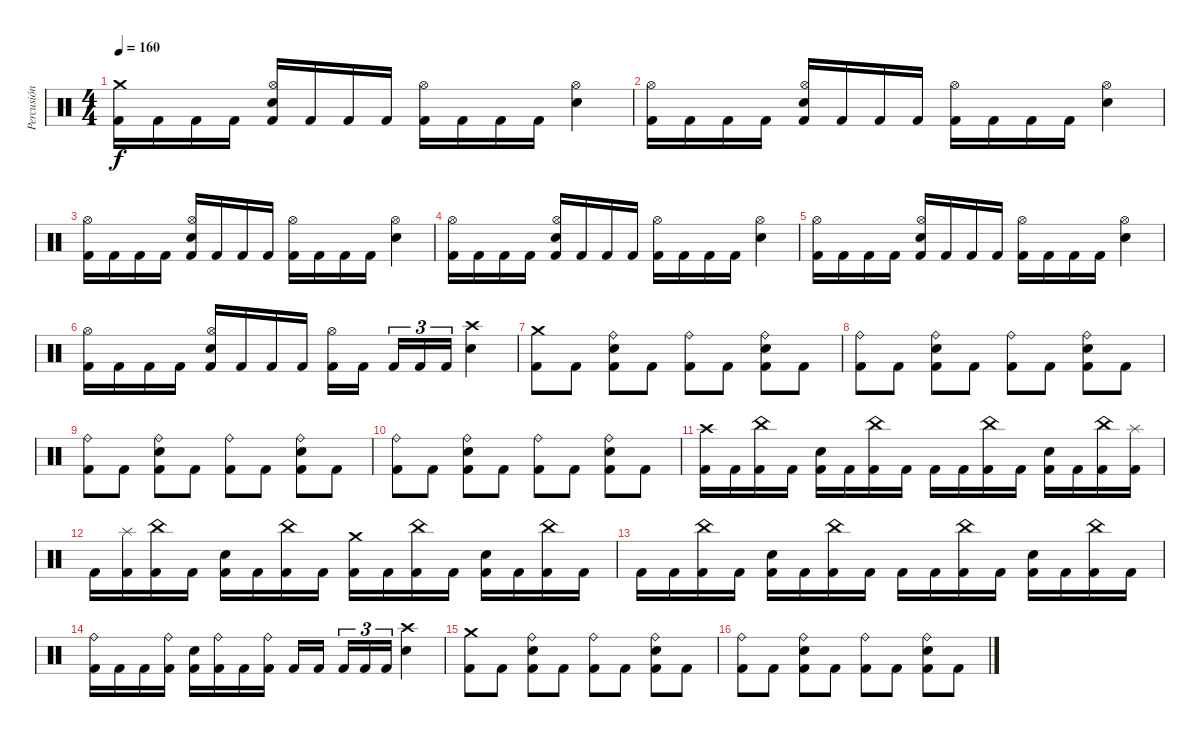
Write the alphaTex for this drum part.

\track ("Percusión" "Percusión") {instrument percussion}
\staff {score}
\articulation defaults
\ts (4 4)
\tempo 160
\clef neutral
\ks c
("Crash medium (hit)" "Kick (hit) 2").16{dy f} "Kick (hit) 2".16 "Kick (hit) 2".16 "Kick (hit) 2".16 ("Hi-Hat (open)" "Electric Snare (hit)" "Kick (hit) 2").16 "Kick (hit) 2".16 "Kick (hit) 2".16 "Kick (hit) 2".16 ("Hi-Hat (open)" "Kick (hit) 2").16 "Kick (hit) 2".16 "Kick (hit) 2".16 "Kick (hit) 2".16 ("Hi-Hat (open)" "Electric Snare (hit)").4 |
("Hi-Hat (open)" "Kick (hit) 2").16 "Kick (hit) 2".16 "Kick (hit) 2".16 "Kick (hit) 2".16 ("Hi-Hat (open)" "Electric Snare (hit)" "Kick (hit) 2").16 "Kick (hit) 2".16 "Kick (hit) 2".16 "Kick (hit) 2".16 ("Hi-Hat (open)" "Kick (hit) 2").16 "Kick (hit) 2".16 "Kick (hit) 2".16 "Kick (hit) 2".16 ("Hi-Hat (open)" "Electric Snare (hit)").4 |
("Hi-Hat (open)" "Kick (hit) 2").16 "Kick (hit) 2".16 "Kick (hit) 2".16 "Kick (hit) 2".16 ("Hi-Hat (open)" "Electric Snare (hit)" "Kick (hit) 2").16 "Kick (hit) 2".16 "Kick (hit) 2".16 "Kick (hit) 2".16 ("Hi-Hat (open)" "Kick (hit) 2").16 "Kick (hit) 2".16 "Kick (hit) 2".16 "Kick (hit) 2".16 ("Hi-Hat (open)" "Electric Snare (hit)").4 |
("Hi-Hat (open)" "Kick (hit) 2").16 "Kick (hit) 2".16 "Kick (hit) 2".16 "Kick (hit) 2".16 ("Hi-Hat (open)" "Electric Snare (hit)" "Kick (hit) 2").16 "Kick (hit) 2".16 "Kick (hit) 2".16 "Kick (hit) 2".16 ("Hi-Hat (open)" "Kick (hit) 2").16 "Kick (hit) 2".16 "Kick (hit) 2".16 "Kick (hit) 2".16 ("Hi-Hat (open)" "Electric Snare (hit)").4 |
("Hi-Hat (open)" "Kick (hit) 2").16 "Kick (hit) 2".16 "Kick (hit) 2".16 "Kick (hit) 2".16 ("Hi-Hat (open)" "Electric Snare (hit)" "Kick (hit) 2").16 "Kick (hit) 2".16 "Kick (hit) 2".16 "Kick (hit) 2".16 ("Hi-Hat (open)" "Kick (hit) 2").16 "Kick (hit) 2".16 "Kick (hit) 2".16 "Kick (hit) 2".16 ("Hi-Hat (open)" "Electric Snare (hit)").4 |
("Hi-Hat (open)" "Kick (hit) 2").16 "Kick (hit) 2".16 "Kick (hit) 2".16 "Kick (hit) 2".16 ("Hi-Hat (open)" "Electric Snare (hit)" "Kick (hit) 2").16 "Kick (hit) 2".16 "Kick (hit) 2".16 "Kick (hit) 2".16 ("Hi-Hat (open)" "Kick (hit) 2").16 "Kick (hit) 2".16{beam splitsecondary} "Kick (hit) 2".16{tu (3 2)} "Kick (hit) 2".16{tu (3 2)} "Kick (hit) 2".16{tu (3 2)} ("Crash high (hit)" "Electric Snare (hit)").4 |
("Crash medium (hit)" "Kick (hit) 2").8 "Kick (hit) 2".8 ("Ride (bell)" "Electric Snare (hit)" "Kick (hit) 2").8 "Kick (hit) 2".8 ("Ride (bell)" "Kick (hit) 2").8 "Kick (hit) 2".8 ("Ride (bell)" "Electric Snare (hit)" "Kick (hit) 2").8 "Kick (hit) 2".8 |
("Ride (bell)" "Kick (hit) 2").8 "Kick (hit) 2".8 ("Ride (bell)" "Electric Snare (hit)" "Kick (hit) 2").8 "Kick (hit) 2".8 ("Ride (bell)" "Kick (hit) 2").8 "Kick (hit) 2".8 ("Ride (bell)" "Electric Snare (hit)" "Kick (hit) 2").8 "Kick (hit) 2".8 |
("Ride (bell)" "Kick (hit) 2").8 "Kick (hit) 2".8 ("Ride (bell)" "Electric Snare (hit)" "Kick (hit) 2").8 "Kick (hit) 2".8 ("Ride (bell)" "Kick (hit) 2").8 "Kick (hit) 2".8 ("Ride (bell)" "Electric Snare (hit)" "Kick (hit) 2").8 "Kick (hit) 2".8 |
("Ride (bell)" "Kick (hit) 2").8 "Kick (hit) 2".8 ("Ride (bell)" "Electric Snare (hit)" "Kick (hit) 2").8 "Kick (hit) 2".8 ("Ride (bell)" "Kick (hit) 2").8 "Kick (hit) 2".8 ("Ride (bell)" "Electric Snare (hit)" "Kick (hit) 2").8 "Kick (hit) 2".8 |
("Crash high (hit)" "Kick (hit) 2").16 "Kick (hit) 2".16 ("China (hit)" "Kick (hit) 2").16 "Kick (hit) 2".16 ("Electric Snare (hit)" "Kick (hit) 2").16 "Kick (hit) 2".16 ("China (hit)" "Kick (hit) 2").16 "Kick (hit) 2".16 "Kick (hit) 2".16 "Kick (hit) 2".16 ("China (hit)" "Kick (hit) 2").16 "Kick (hit) 2".16 ("Electric Snare (hit)" "Kick (hit) 2").16 "Kick (hit) 2".16 ("China (hit)" "Kick (hit) 2").16 ("Splash (hit)" "Kick (hit) 2").16 |
"Kick (hit) 2".16 ("Splash (hit)" "Kick (hit) 2").16 ("China (hit)" "Kick (hit) 2").16 "Kick (hit) 2".16 ("Electric Snare (hit)" "Kick (hit) 2").16 "Kick (hit) 2".16 ("China (hit)" "Kick (hit) 2").16 "Kick (hit) 2".16 ("Crash medium (hit)" "Kick (hit) 2").16 "Kick (hit) 2".16 ("China (hit)" "Kick (hit) 2").16 "Kick (hit) 2".16 ("Electric Snare (hit)" "Kick (hit) 2").16 "Kick (hit) 2".16 ("China (hit)" "Kick (hit) 2").16 "Kick (hit) 2".16 |
"Kick (hit) 2".16 "Kick (hit) 2".16 ("China (hit)" "Kick (hit) 2").16 "Kick (hit) 2".16 ("Electric Snare (hit)" "Kick (hit) 2").16 "Kick (hit) 2".16 ("China (hit)" "Kick (hit) 2").16 "Kick (hit) 2".16 "Kick (hit) 2".16 "Kick (hit) 2".16 ("China (hit)" "Kick (hit) 2").16 "Kick (hit) 2".16 ("Electric Snare (hit)" "Kick (hit) 2").16 "Kick (hit) 2".16 ("China (hit)" "Kick (hit) 2").16 "Kick (hit) 2".16 |
("Ride (bell)" "Kick (hit) 2").16 "Kick (hit) 2".16 "Kick (hit) 2".16 ("Ride (bell)" "Kick (hit) 2").16 ("Electric Snare (hit)" "Kick (hit) 2").16 ("Ride (bell)" "Kick (hit) 2").16 "Kick (hit) 2".16 ("Ride (bell)" "Kick (hit) 2").16 "Kick (hit) 2".16 "Kick (hit) 2".16{beam splitsecondary} "Kick (hit) 2".16{tu (3 2)} "Kick (hit) 2".16{tu (3 2)} "Kick (hit) 2".16{tu (3 2)} ("Crash high (hit)" "Electric Snare (hit)").4 |
("Crash medium (hit)" "Kick (hit) 2").8 "Kick (hit) 2".8 ("Ride (bell)" "Electric Snare (hit)" "Kick (hit) 2").8 "Kick (hit) 2".8 ("Ride (bell)" "Kick (hit) 2").8 "Kick (hit) 2".8 ("Ride (bell)" "Electric Snare (hit)" "Kick (hit) 2").8 "Kick (hit) 2".8 |
("Ride (bell)" "Kick (hit) 2").8 "Kick (hit) 2".8 ("Ride (bell)" "Electric Snare (hit)" "Kick (hit) 2").8 "Kick (hit) 2".8 ("Ride (bell)" "Kick (hit) 2").8 "Kick (hit) 2".8 ("Ride (bell)" "Electric Snare (hit)" "Kick (hit) 2").8 "Kick (hit) 2".8
